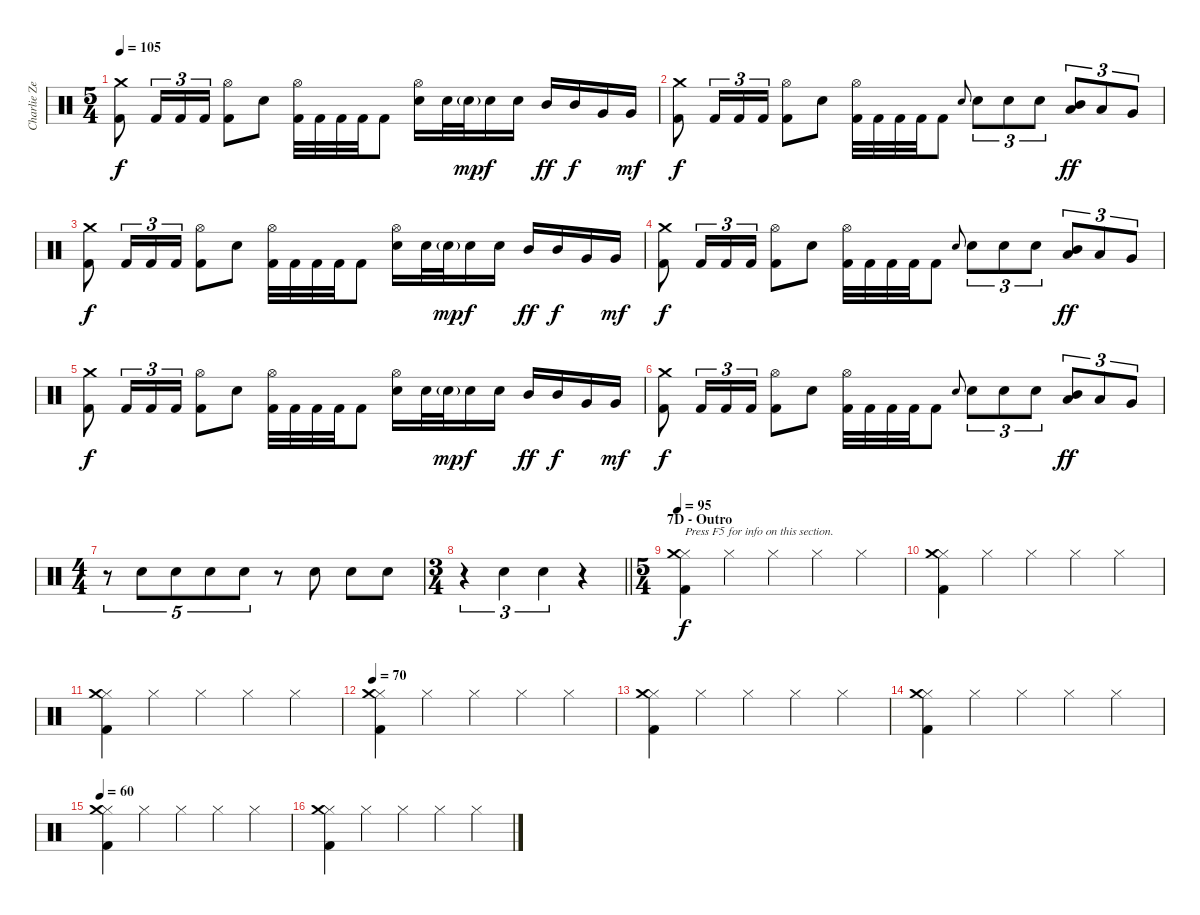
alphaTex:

\track ("Charlie Zeleny - Drums" "Charlie Ze") {instrument percussion}
\staff {score}
\articulation defaults
\ts (5 4)
\tempo 105
\clef neutral
\ks c
("Crash medium (hit)" "Kick (hit) 2").8{dy f} "Kick (hit) 2".16{tu (3 2)} "Kick (hit) 2".16{tu (3 2)} "Kick (hit) 2".16{tu (3 2)} ("Hi-Hat (open)" "Kick (hit) 2").8 "Electric Snare (hit)".8 ("Hi-Hat (open)" "Kick (hit) 2").32 "Kick (hit) 2".32 "Kick (hit) 2".32 "Kick (hit) 2".32 "Kick (hit) 2".8 ("Hi-Hat (open)" "Electric Snare (hit)").16 "Electric Snare (hit)".32 "Electric Snare (hit)"{g}.32{dy mp} "Electric Snare (hit)".16{dy f} "Electric Snare (hit)".16 "Mid Tom (hit)".16{dy ff} "Mid Tom (hit)".16{dy f} "Very Low Tom (hit)".16 "Very Low Tom (hit)".16{dy mf} |
("Crash medium (hit)" "Kick (hit) 2").8{dy f} "Kick (hit) 2".16{tu (3 2)} "Kick (hit) 2".16{tu (3 2)} "Kick (hit) 2".16{tu (3 2)} ("Hi-Hat (open)" "Kick (hit) 2").8 "Electric Snare (hit)".8 ("Hi-Hat (open)" "Kick (hit) 2").32 "Kick (hit) 2".32 "Kick (hit) 2".32 "Kick (hit) 2".32 "Kick (hit) 2".8 "Electric Snare (hit)".8{gr onbeat} "Electric Snare (hit)".8{tu (3 2)} "Electric Snare (hit)".8{tu (3 2)} "Electric Snare (hit)".8{tu (3 2)} ("Mid Tom (hit)" "Low Tom (hit)").8{tu (3 2) bd 480 dy ff} "Low Tom (hit)".8{tu (3 2)} "Very Low Tom (hit)".8{tu (3 2)} |
("Crash medium (hit)" "Kick (hit) 2").8{dy f} "Kick (hit) 2".16{tu (3 2)} "Kick (hit) 2".16{tu (3 2)} "Kick (hit) 2".16{tu (3 2)} ("Hi-Hat (open)" "Kick (hit) 2").8 "Electric Snare (hit)".8 ("Hi-Hat (open)" "Kick (hit) 2").32 "Kick (hit) 2".32 "Kick (hit) 2".32 "Kick (hit) 2".32 "Kick (hit) 2".8 ("Hi-Hat (open)" "Electric Snare (hit)").16 "Electric Snare (hit)".32 "Electric Snare (hit)"{g}.32{dy mp} "Electric Snare (hit)".16{dy f} "Electric Snare (hit)".16 "Mid Tom (hit)".16{dy ff} "Mid Tom (hit)".16{dy f} "Very Low Tom (hit)".16 "Very Low Tom (hit)".16{dy mf} |
("Crash medium (hit)" "Kick (hit) 2").8{dy f} "Kick (hit) 2".16{tu (3 2)} "Kick (hit) 2".16{tu (3 2)} "Kick (hit) 2".16{tu (3 2)} ("Hi-Hat (open)" "Kick (hit) 2").8 "Electric Snare (hit)".8 ("Hi-Hat (open)" "Kick (hit) 2").32 "Kick (hit) 2".32 "Kick (hit) 2".32 "Kick (hit) 2".32 "Kick (hit) 2".8 "Electric Snare (hit)".8{gr onbeat} "Electric Snare (hit)".8{tu (3 2)} "Electric Snare (hit)".8{tu (3 2)} "Electric Snare (hit)".8{tu (3 2)} ("Mid Tom (hit)" "Low Tom (hit)").8{tu (3 2) bd 480 dy ff} "Low Tom (hit)".8{tu (3 2)} "Very Low Tom (hit)".8{tu (3 2)} |
("Crash medium (hit)" "Kick (hit) 2").8{dy f} "Kick (hit) 2".16{tu (3 2)} "Kick (hit) 2".16{tu (3 2)} "Kick (hit) 2".16{tu (3 2)} ("Hi-Hat (open)" "Kick (hit) 2").8 "Electric Snare (hit)".8 ("Hi-Hat (open)" "Kick (hit) 2").32 "Kick (hit) 2".32 "Kick (hit) 2".32 "Kick (hit) 2".32 "Kick (hit) 2".8 ("Hi-Hat (open)" "Electric Snare (hit)").16 "Electric Snare (hit)".32 "Electric Snare (hit)"{g}.32{dy mp} "Electric Snare (hit)".16{dy f} "Electric Snare (hit)".16 "Mid Tom (hit)".16{dy ff} "Mid Tom (hit)".16{dy f} "Very Low Tom (hit)".16 "Very Low Tom (hit)".16{dy mf} |
("Crash medium (hit)" "Kick (hit) 2").8{dy f} "Kick (hit) 2".16{tu (3 2)} "Kick (hit) 2".16{tu (3 2)} "Kick (hit) 2".16{tu (3 2)} ("Hi-Hat (open)" "Kick (hit) 2").8 "Electric Snare (hit)".8 ("Hi-Hat (open)" "Kick (hit) 2").32 "Kick (hit) 2".32 "Kick (hit) 2".32 "Kick (hit) 2".32 "Kick (hit) 2".8 "Electric Snare (hit)".8{gr onbeat} "Electric Snare (hit)".8{tu (3 2)} "Electric Snare (hit)".8{tu (3 2)} "Electric Snare (hit)".8{tu (3 2)} ("Mid Tom (hit)" "Low Tom (hit)").8{tu (3 2) bd 480 dy ff} "Low Tom (hit)".8{tu (3 2)} "Very Low Tom (hit)".8{tu (3 2)} |
\ts (4 4)
r.8{tu (5 4)} "Electric Snare (hit)".8{tu (5 4)} "Electric Snare (hit)".8{tu (5 4)} "Electric Snare (hit)".8{tu (5 4)} "Electric Snare (hit)".8{tu (5 4)} r.8 "Electric Snare (hit)".8 "Electric Snare (hit)".8 "Electric Snare (hit)".8 |
\ts (3 4)
\barLineRight lightlight
r.4{tu (3 2)} "Electric Snare (hit)".4{tu (3 2)} "Electric Snare (hit)".4{tu (3 2)} r.4 |
\ts (5 4)
\section ("" "7D - Outro")
\tempo 95
("Hi-Hat (closed)" "Crash medium (hit)" "Kick (hit) 2").4{txt "Press F5 for info on this section." dy f} "Hi-Hat (closed)".4 "Hi-Hat (closed)".4 "Hi-Hat (closed)".4 "Hi-Hat (closed)".4 |
("Hi-Hat (closed)" "Crash medium (hit)" "Kick (hit) 2").4 "Hi-Hat (closed)".4 "Hi-Hat (closed)".4 "Hi-Hat (closed)".4 "Hi-Hat (closed)".4 |
("Hi-Hat (closed)" "Crash medium (hit)" "Kick (hit) 2").4 "Hi-Hat (closed)".4 "Hi-Hat (closed)".4 "Hi-Hat (closed)".4 "Hi-Hat (closed)".4 |
\tempo 70
("Hi-Hat (closed)" "Crash medium (hit)" "Kick (hit) 2").4 "Hi-Hat (closed)".4 "Hi-Hat (closed)".4 "Hi-Hat (closed)".4 "Hi-Hat (closed)".4 |
("Hi-Hat (closed)" "Crash medium (hit)" "Kick (hit) 2").4{volume 8} "Hi-Hat (closed)".4 "Hi-Hat (closed)".4 "Hi-Hat (closed)".4 "Hi-Hat (closed)".4 |
("Hi-Hat (closed)" "Crash medium (hit)" "Kick (hit) 2").4 "Hi-Hat (closed)".4 "Hi-Hat (closed)".4 "Hi-Hat (closed)".4 "Hi-Hat (closed)".4 |
\tempo 60
("Hi-Hat (closed)" "Crash medium (hit)" "Kick (hit) 2").4 "Hi-Hat (closed)".4 "Hi-Hat (closed)".4 "Hi-Hat (closed)".4 "Hi-Hat (closed)".4 |
("Hi-Hat (closed)" "Crash medium (hit)" "Kick (hit) 2").4{volume 0} "Hi-Hat (closed)".4 "Hi-Hat (closed)".4 "Hi-Hat (closed)".4 "Hi-Hat (closed)".4
